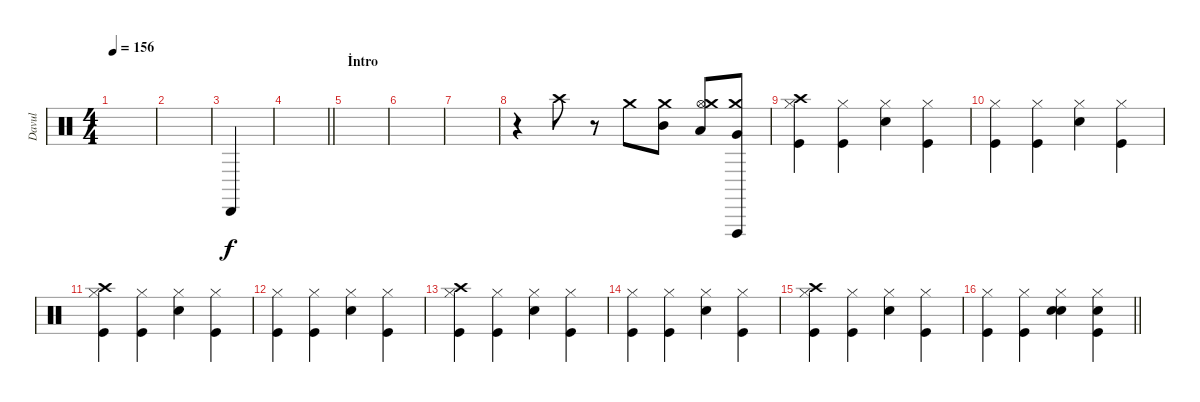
\track ("Davul" "Davul") {instrument percussion}
\staff {score}
\articulation defaults
\ts (4 4)
\tempo 156
\clef neutral
\ks c
|
|
"Cabasa (hit)".4 |
\barLineRight lightlight
|
\section ("" "İntro")
|
|
|
r.4 "Crash high (hit)".8 r.8 "Crash medium (hit)".8 ("Mid Tom (hit)" "Crash medium (hit)").8 ("Low Tom (hit)" "Hi-Hat (open)" "Crash medium (hit)").8 ("Very Low Tom (hit)" "Vibraslap (hit)" "Crash medium (hit)").8 |
("Hi-Hat (closed)" "Kick (hit)" "Crash high (hit)").4 ("Hi-Hat (closed)" "Kick (hit)").4 ("Hi-Hat (closed)" "Snare (hit) 2").4 ("Hi-Hat (closed)" "Kick (hit)").4 |
("Hi-Hat (closed)" "Kick (hit)").4 ("Hi-Hat (closed)" "Kick (hit)").4 ("Hi-Hat (closed)" "Snare (hit) 2").4 ("Hi-Hat (closed)" "Kick (hit)").4 |
("Hi-Hat (closed)" "Kick (hit)" "Crash high (hit)").4 ("Hi-Hat (closed)" "Kick (hit)").4 ("Hi-Hat (closed)" "Snare (hit) 2").4 ("Hi-Hat (closed)" "Kick (hit)").4 |
("Hi-Hat (closed)" "Kick (hit)").4 ("Hi-Hat (closed)" "Kick (hit)").4 ("Hi-Hat (closed)" "Snare (hit) 2").4 ("Hi-Hat (closed)" "Kick (hit)").4 |
("Hi-Hat (closed)" "Kick (hit)" "Crash high (hit)").4 ("Hi-Hat (closed)" "Kick (hit)").4 ("Hi-Hat (closed)" "Snare (hit) 2").4 ("Hi-Hat (closed)" "Kick (hit)").4 |
("Hi-Hat (closed)" "Kick (hit)").4 ("Hi-Hat (closed)" "Kick (hit)").4 ("Hi-Hat (closed)" "Snare (hit) 2").4 ("Hi-Hat (closed)" "Kick (hit)").4 |
("Hi-Hat (closed)" "Kick (hit)" "Crash high (hit)").4 ("Hi-Hat (closed)" "Kick (hit)").4 ("Hi-Hat (closed)" "Snare (hit) 2").4 ("Hi-Hat (closed)" "Kick (hit)").4 |
\barLineRight lightlight
("Hi-Hat (closed)" "Kick (hit)").4 ("Hi-Hat (closed)" "Kick (hit)").4 ("Hi-Hat (closed)" "Snare (hit) 2" "Snare (hit) 2").4 ("Hi-Hat (closed)" "Kick (hit)" "Snare (hit) 2").4
